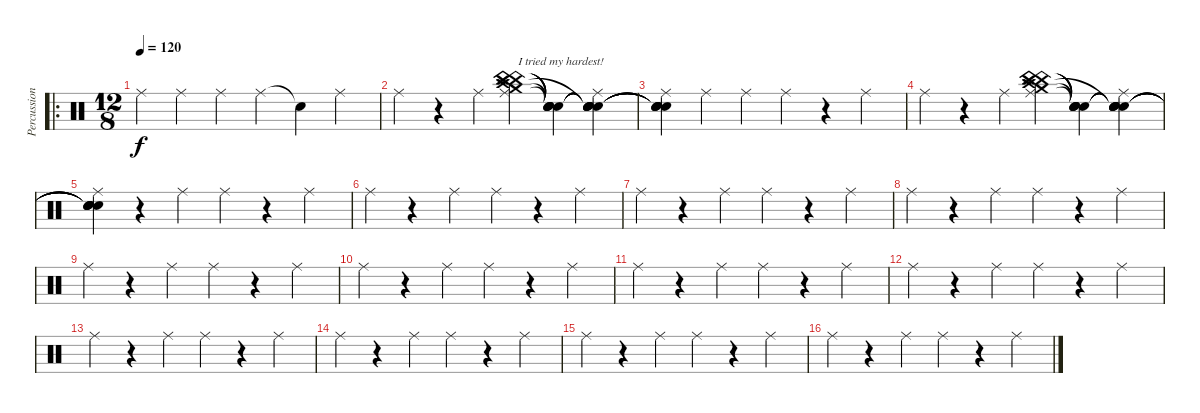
\track ("Percussion" "Percussion") {instrument percussion}
\staff {score}
\articulation defaults
\ro
\ts (12 8)
\tempo 120
\clef neutral
\ks c "Ride (middle)".4{dy f} "Ride (middle)".4 "Ride (middle)".4 "Ride (middle)".4 "Snare (hit)"{t}.4 "Ride (middle)".4
|
"Ride (middle)".4 r.4 "Ride (middle)".4 ("Crash medium (hit)" "China (hit)" "China (hit)" "China (hit)" "Ride (middle)" "Crash high (hit)").4{txt "I tried my hardest!"} ("Snare (hit)"{t} "Snare (hit)"{t} "Snare (hit)"{t} "Snare (hit)"{t} "Snare (hit)"{t}).4 ("Snare (hit)"{t} "Snare (hit)"{t} "Snare (hit)"{t} "Snare (hit)"{t} "Ride (middle)" "Snare (hit)"{t}).4 |
("Snare (hit)"{t} "Snare (hit)"{t} "Snare (hit)"{t} "Snare (hit)"{t} "Ride (middle)" "Snare (hit)"{t}).4 "Ride (middle)".4 "Ride (middle)".4 "Ride (middle)".4 r.4 "Ride (middle)".4 |
"Ride (middle)".4 r.4 "Ride (middle)".4 ("Crash medium (hit)" "China (hit)" "China (hit)" "China (hit)" "Ride (middle)" "Crash high (hit)").4 ("Snare (hit)"{t} "Snare (hit)"{t} "Snare (hit)"{t} "Snare (hit)"{t} "Snare (hit)"{t}).4 ("Snare (hit)"{t} "Snare (hit)"{t} "Snare (hit)"{t} "Snare (hit)"{t} "Ride (middle)" "Snare (hit)"{t}).4 |
("Snare (hit)"{t} "Snare (hit)"{t} "Snare (hit)"{t} "Snare (hit)"{t} "Ride (middle)" "Snare (hit)"{t}).4 r.4 "Ride (middle)".4 "Ride (middle)".4 r.4 "Ride (middle)".4 |
"Ride (middle)".4 r.4 "Ride (middle)".4 "Ride (middle)".4 r.4 "Ride (middle)".4 |
"Ride (middle)".4 r.4 "Ride (middle)".4 "Ride (middle)".4 r.4 "Ride (middle)".4 |
"Ride (middle)".4 r.4 "Ride (middle)".4 "Ride (middle)".4 r.4 "Ride (middle)".4 |
"Ride (middle)".4 r.4 "Ride (middle)".4 "Ride (middle)".4 r.4 "Ride (middle)".4 |
"Ride (middle)".4 r.4 "Ride (middle)".4 "Ride (middle)".4 r.4 "Ride (middle)".4 |
"Ride (middle)".4 r.4 "Ride (middle)".4 "Ride (middle)".4 r.4 "Ride (middle)".4 |
"Ride (middle)".4 r.4 "Ride (middle)".4 "Ride (middle)".4 r.4 "Ride (middle)".4 |
"Ride (middle)".4 r.4 "Ride (middle)".4 "Ride (middle)".4 r.4 "Ride (middle)".4 |
"Ride (middle)".4 r.4 "Ride (middle)".4 "Ride (middle)".4 r.4 "Ride (middle)".4 |
"Ride (middle)".4 r.4 "Ride (middle)".4 "Ride (middle)".4 r.4 "Ride (middle)".4 |
"Ride (middle)".4 r.4 "Ride (middle)".4 "Ride (middle)".4 r.4 "Ride (middle)".4
